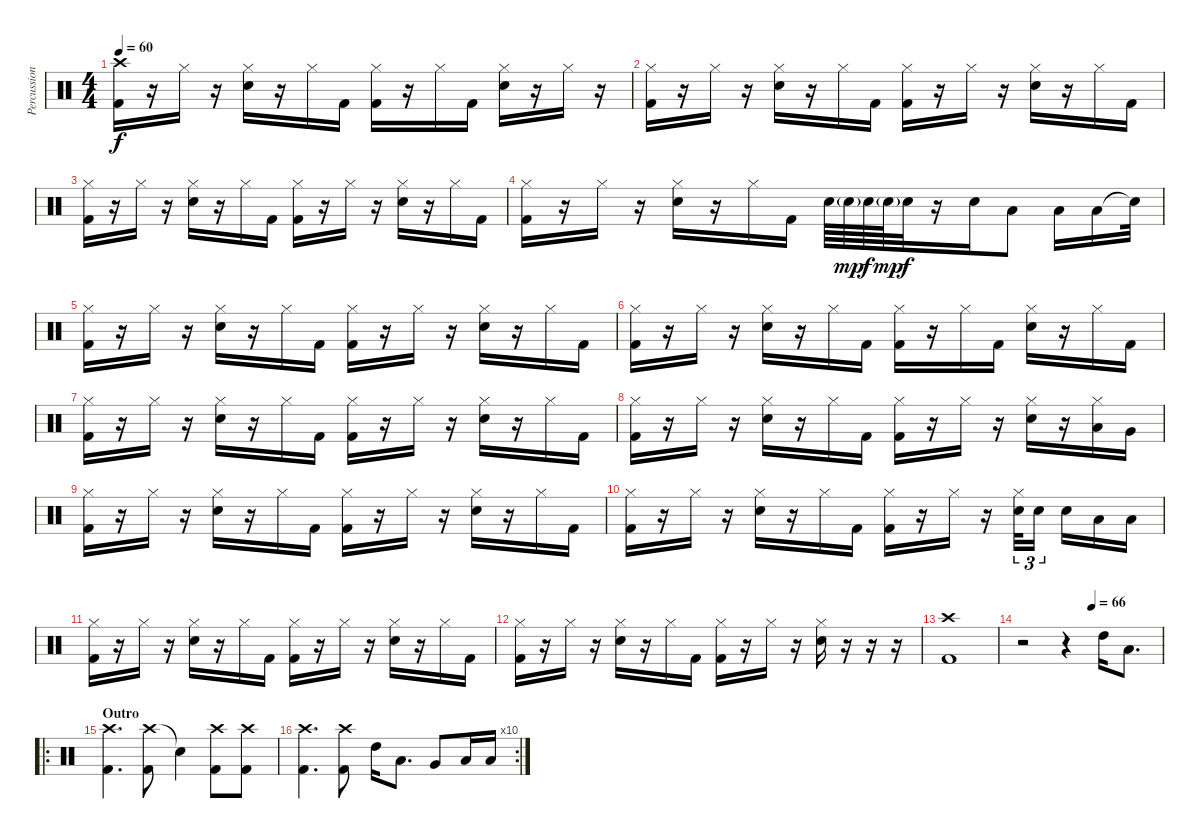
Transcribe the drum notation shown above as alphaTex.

\track ("Percussion" "Percussion") {instrument percussion}
\staff {score}
\articulation defaults
\ts (4 4)
\tempo 60
\clef neutral
\ks c
("Crash high (hit)" "Kick (hit) 2").16{dy f balance 8} r.16 "Hi-Hat (closed)".16 r.16 ("Hi-Hat (closed)" "Snare (hit) 2").16 r.16 "Hi-Hat (closed)".16 "Kick (hit) 2".16 ("Hi-Hat (closed)" "Kick (hit) 2").16 r.16 "Hi-Hat (closed)".16 "Kick (hit) 2".16 ("Hi-Hat (closed)" "Snare (hit) 2").16 r.16 "Hi-Hat (closed)".16 r.16 |
("Hi-Hat (closed)" "Kick (hit) 2").16 r.16 "Hi-Hat (closed)".16 r.16 ("Hi-Hat (closed)" "Snare (hit) 2").16 r.16 "Hi-Hat (closed)".16 "Kick (hit) 2".16 ("Hi-Hat (closed)" "Kick (hit) 2").16 r.16 "Hi-Hat (closed)".16 r.16 ("Hi-Hat (closed)" "Snare (hit) 2").16 r.16 "Hi-Hat (closed)".16 "Kick (hit) 2".16 |
("Hi-Hat (closed)" "Kick (hit) 2").16 r.16 "Hi-Hat (closed)".16 r.16 ("Hi-Hat (closed)" "Snare (hit) 2").16 r.16 "Hi-Hat (closed)".16 "Kick (hit) 2".16 ("Hi-Hat (closed)" "Kick (hit) 2").16 r.16 "Hi-Hat (closed)".16 r.16 ("Hi-Hat (closed)" "Snare (hit) 2").16 r.16 "Hi-Hat (closed)".16 "Kick (hit) 2".16 |
("Hi-Hat (closed)" "Kick (hit) 2").16 r.16 "Hi-Hat (closed)".16 r.16 ("Hi-Hat (closed)" "Snare (hit) 2").16 r.16 "Hi-Hat (closed)".16 "Kick (hit) 2".16 "Snare (hit) 2".64 "Snare (hit) 2"{g}.64{dy mp} "Snare (hit) 2".64{dy f} "Snare (hit) 2"{g}.64{dy mp} "Snare (hit) 2".32{dy f} r.16 "Snare (hit) 2".16 "Low Tom (hit)".8{balance 0} "Low Tom (hit)".16{balance 16} "Low Floor Tom (hit)".16{balance 16} "Snare (hit)"{t}.32 |
("Hi-Hat (closed)" "Kick (hit) 2").16{balance 8} r.16 "Hi-Hat (closed)".16 r.16 ("Hi-Hat (closed)" "Snare (hit) 2").16 r.16 "Hi-Hat (closed)".16 "Kick (hit) 2".16 ("Hi-Hat (closed)" "Kick (hit) 2").16 r.16 "Hi-Hat (closed)".16 r.16 ("Hi-Hat (closed)" "Snare (hit) 2").16 r.16 "Hi-Hat (closed)".16 "Kick (hit) 2".16 |
("Hi-Hat (closed)" "Kick (hit) 2").16 r.16 "Hi-Hat (closed)".16 r.16 ("Hi-Hat (closed)" "Snare (hit) 2").16 r.16 "Hi-Hat (closed)".16 "Kick (hit) 2".16 ("Hi-Hat (closed)" "Kick (hit) 2").16 r.16 "Hi-Hat (closed)".16 "Kick (hit) 2".16 ("Hi-Hat (closed)" "Snare (hit) 2").16 r.16 "Hi-Hat (closed)".16 "Kick (hit) 2".16 |
("Hi-Hat (closed)" "Kick (hit) 2").16 r.16 "Hi-Hat (closed)".16 r.16 ("Hi-Hat (closed)" "Snare (hit) 2").16 r.16 "Hi-Hat (closed)".16 "Kick (hit) 2".16 ("Hi-Hat (closed)" "Kick (hit) 2").16 r.16 "Hi-Hat (closed)".16 r.16 ("Hi-Hat (closed)" "Snare (hit) 2").16 r.16 "Hi-Hat (closed)".16 "Kick (hit) 2".16 |
("Hi-Hat (closed)" "Kick (hit) 2").16 r.16 "Hi-Hat (closed)".16 r.16 ("Hi-Hat (closed)" "Snare (hit) 2").16 r.16 "Hi-Hat (closed)".16 "Kick (hit) 2".16 ("Hi-Hat (closed)" "Kick (hit) 2").16 r.16 "Hi-Hat (closed)".16 r.16 ("Hi-Hat (closed)" "Snare (hit) 2").16 r.16 ("Hi-Hat (closed)" "Low Tom (hit)").16{balance 0} "Very Low Tom (hit)".16{balance 16} |
("Hi-Hat (closed)" "Kick (hit) 2").16{balance 8} r.16 "Hi-Hat (closed)".16 r.16 ("Hi-Hat (closed)" "Snare (hit) 2").16 r.16 "Hi-Hat (closed)".16 "Kick (hit) 2".16 ("Hi-Hat (closed)" "Kick (hit) 2").16 r.16 "Hi-Hat (closed)".16 r.16 ("Hi-Hat (closed)" "Snare (hit) 2").16 r.16 "Hi-Hat (closed)".16 "Kick (hit) 2".16 |
("Hi-Hat (closed)" "Kick (hit) 2").16 r.16 "Hi-Hat (closed)".16 r.16 ("Hi-Hat (closed)" "Snare (hit) 2").16 r.16 "Hi-Hat (closed)".16 "Kick (hit) 2".16 ("Hi-Hat (closed)" "Kick (hit) 2").16 r.16 "Hi-Hat (closed)".16 r.16 ("Hi-Hat (closed)" "Snare (hit) 2").32{tu (3 2)} "Snare (hit) 2".16{tu (3 2)} "Snare (hit) 2".16 "Low Tom (hit)".16{balance 16} "Low Floor Tom (hit)".16{balance 0} |
("Hi-Hat (closed)" "Kick (hit) 2").16{balance 8} r.16 "Hi-Hat (closed)".16 r.16 ("Hi-Hat (closed)" "Snare (hit) 2").16 r.16 "Hi-Hat (closed)".16 "Kick (hit) 2".16 ("Hi-Hat (closed)" "Kick (hit) 2").16 r.16 "Hi-Hat (closed)".16 r.16 ("Hi-Hat (closed)" "Snare (hit) 2").16 r.16 "Hi-Hat (closed)".16 "Kick (hit) 2".16 |
("Hi-Hat (closed)" "Kick (hit) 2").16{balance 8} r.16 "Hi-Hat (closed)".16 r.16 ("Hi-Hat (closed)" "Snare (hit) 2").16 r.16 "Hi-Hat (closed)".16 "Kick (hit) 2".16 ("Hi-Hat (closed)" "Kick (hit) 2").16 r.16 "Hi-Hat (closed)".16 r.16 ("Hi-Hat (closed)" "Snare (hit) 2").16 r.16 r.16 r.16 |
("Crash high (hit)" "Kick (hit) 2").1 |
\tempo (66 0.5)
r.2 r.4 "High Tom (hit)".16 "Low Tom (hit)".8{d} |
\ro
\section ("" "Outro")
("Crash high (hit)" "Kick (hit) 2").4{d balance 8} ("Crash high (hit)" "Kick (hit) 2").8 "Snare (hit)"{t}.4 ("Crash high (hit)" "Kick (hit) 2").8 ("Crash high (hit)" "Kick (hit) 2").8 |
\rc 10
("Crash high (hit)" "Kick (hit) 2").4{d} ("Crash high (hit)" "Kick (hit) 2").8 "High Tom (hit)".16{balance 0} "Low Tom (hit)".8{d} "Very Low Tom (hit)".8{balance 8} "Low Floor Tom (hit)".16 "Low Floor Tom (hit)".16{balance 16}
